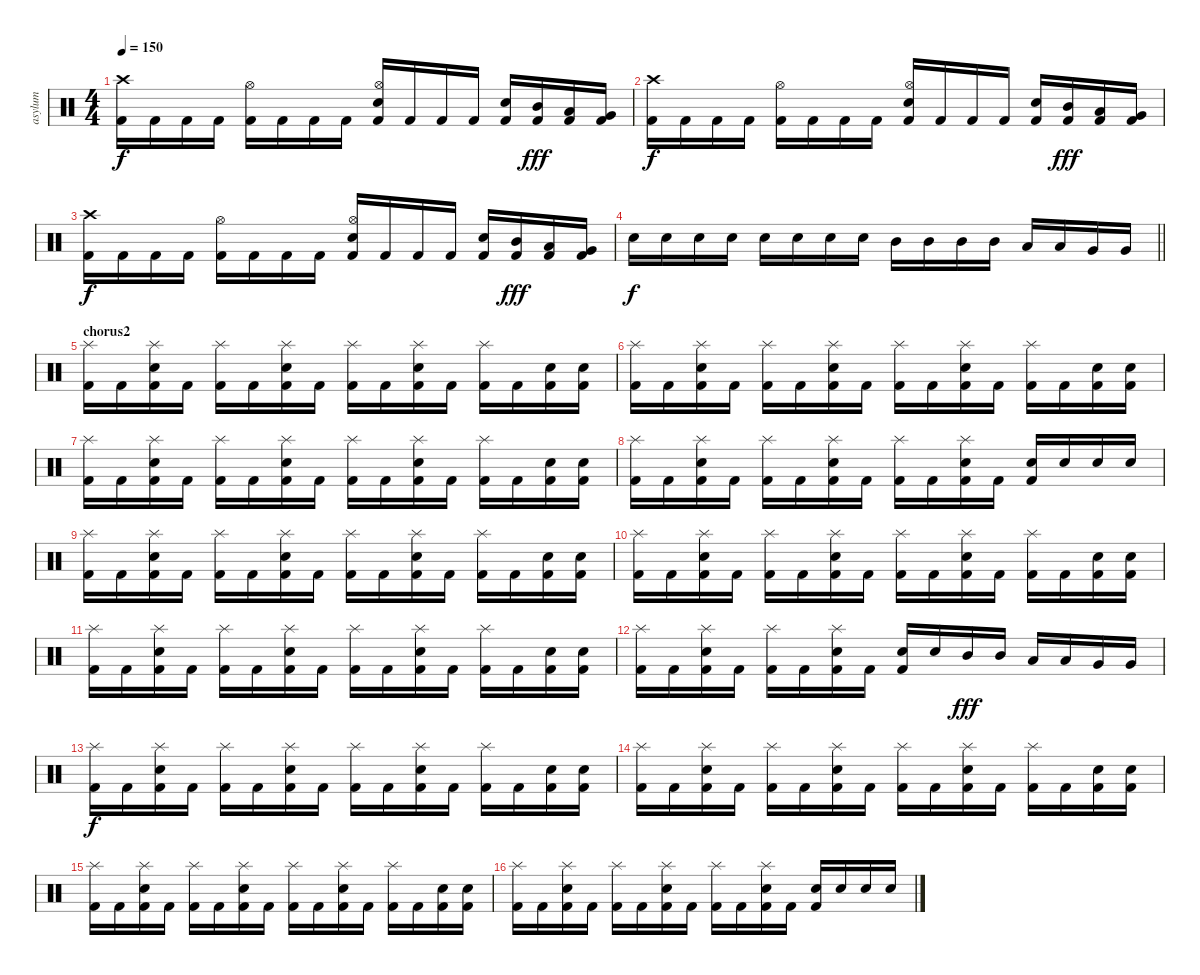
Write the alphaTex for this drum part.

\track ("asylum" "asylum") {instrument percussion}
\staff {score}
\articulation defaults
\ts (4 4)
\tempo 150
\clef neutral
\ks c
("Crash high (hit)" "Kick (hit) 2").16{dy f} "Kick (hit) 2".16 "Kick (hit) 2".16 "Kick (hit) 2".16 ("Hi-Hat (open)" "Kick (hit) 2").16 "Kick (hit) 2".16 "Kick (hit) 2".16 "Kick (hit) 2".16 ("Hi-Hat (open)" "Electric Snare (hit)" "Kick (hit) 2").16 "Kick (hit) 2".16 "Kick (hit) 2".16 "Kick (hit) 2".16 ("Electric Snare (hit)" "Kick (hit) 2").16 ("Mid Tom (hit)" "Kick (hit) 2").16{dy fff} ("Low Tom (hit)" "Kick (hit) 2").16 ("Very Low Tom (hit)" "Kick (hit) 2").16 |
("Crash high (hit)" "Kick (hit) 2").16{dy f} "Kick (hit) 2".16 "Kick (hit) 2".16 "Kick (hit) 2".16 ("Hi-Hat (open)" "Kick (hit) 2").16 "Kick (hit) 2".16 "Kick (hit) 2".16 "Kick (hit) 2".16 ("Hi-Hat (open)" "Electric Snare (hit)" "Kick (hit) 2").16 "Kick (hit) 2".16 "Kick (hit) 2".16 "Kick (hit) 2".16 ("Electric Snare (hit)" "Kick (hit) 2").16 ("Mid Tom (hit)" "Kick (hit) 2").16{dy fff} ("Low Tom (hit)" "Kick (hit) 2").16 ("Very Low Tom (hit)" "Kick (hit) 2").16 |
("Crash high (hit)" "Kick (hit) 2").16{dy f} "Kick (hit) 2".16 "Kick (hit) 2".16 "Kick (hit) 2".16 ("Hi-Hat (open)" "Kick (hit) 2").16 "Kick (hit) 2".16 "Kick (hit) 2".16 "Kick (hit) 2".16 ("Hi-Hat (open)" "Electric Snare (hit)" "Kick (hit) 2").16 "Kick (hit) 2".16 "Kick (hit) 2".16 "Kick (hit) 2".16 ("Electric Snare (hit)" "Kick (hit) 2").16 ("Mid Tom (hit)" "Kick (hit) 2").16{dy fff} ("Low Tom (hit)" "Kick (hit) 2").16 ("Very Low Tom (hit)" "Kick (hit) 2").16 |
\barLineRight lightlight "Electric Snare (hit)".16{dy f} "Electric Snare (hit)".16 "Electric Snare (hit)".16 "Electric Snare (hit)".16 "Electric Snare (hit)".16 "Electric Snare (hit)".16 "Electric Snare (hit)".16 "Electric Snare (hit)".16 "Mid Tom (hit)".16 "Mid Tom (hit)".16 "Mid Tom (hit)".16 "Mid Tom (hit)".16 "Low Tom (hit)".16 "Low Tom (hit)".16 "Very Low Tom (hit)".16 "Very Low Tom (hit)".16
|
\section ("" "chorus2")
("Splash (hit)" "Kick (hit) 2").16 "Kick (hit) 2".16 ("Splash (hit)" "Electric Snare (hit)" "Kick (hit) 2").16 "Kick (hit) 2".16 ("Splash (hit)" "Kick (hit) 2").16 "Kick (hit) 2".16 ("Splash (hit)" "Electric Snare (hit)" "Kick (hit) 2").16 "Kick (hit) 2".16 ("Splash (hit)" "Kick (hit) 2").16 "Kick (hit) 2".16 ("Splash (hit)" "Electric Snare (hit)" "Kick (hit) 2").16 "Kick (hit) 2".16 ("Splash (hit)" "Kick (hit) 2").16 "Kick (hit) 2".16 ("Electric Snare (hit)" "Kick (hit) 2").16 ("Electric Snare (hit)" "Kick (hit) 2").16 |
("Splash (hit)" "Kick (hit) 2").16 "Kick (hit) 2".16 ("Splash (hit)" "Electric Snare (hit)" "Kick (hit) 2").16 "Kick (hit) 2".16 ("Splash (hit)" "Kick (hit) 2").16 "Kick (hit) 2".16 ("Splash (hit)" "Electric Snare (hit)" "Kick (hit) 2").16 "Kick (hit) 2".16 ("Splash (hit)" "Kick (hit) 2").16 "Kick (hit) 2".16 ("Splash (hit)" "Electric Snare (hit)" "Kick (hit) 2").16 "Kick (hit) 2".16 ("Splash (hit)" "Kick (hit) 2").16 "Kick (hit) 2".16 ("Electric Snare (hit)" "Kick (hit) 2").16 ("Electric Snare (hit)" "Kick (hit) 2").16 |
("Splash (hit)" "Kick (hit) 2").16 "Kick (hit) 2".16 ("Splash (hit)" "Electric Snare (hit)" "Kick (hit) 2").16 "Kick (hit) 2".16 ("Splash (hit)" "Kick (hit) 2").16 "Kick (hit) 2".16 ("Splash (hit)" "Electric Snare (hit)" "Kick (hit) 2").16 "Kick (hit) 2".16 ("Splash (hit)" "Kick (hit) 2").16 "Kick (hit) 2".16 ("Splash (hit)" "Electric Snare (hit)" "Kick (hit) 2").16 "Kick (hit) 2".16 ("Splash (hit)" "Kick (hit) 2").16 "Kick (hit) 2".16 ("Electric Snare (hit)" "Kick (hit) 2").16 ("Electric Snare (hit)" "Kick (hit) 2").16 |
("Splash (hit)" "Kick (hit) 2").16 "Kick (hit) 2".16 ("Splash (hit)" "Electric Snare (hit)" "Kick (hit) 2").16 "Kick (hit) 2".16 ("Splash (hit)" "Kick (hit) 2").16 "Kick (hit) 2".16 ("Splash (hit)" "Electric Snare (hit)" "Kick (hit) 2").16 "Kick (hit) 2".16 ("Splash (hit)" "Kick (hit) 2").16 "Kick (hit) 2".16 ("Splash (hit)" "Electric Snare (hit)" "Kick (hit) 2").16 "Kick (hit) 2".16 ("Electric Snare (hit)" "Kick (hit) 2").16 "Electric Snare (hit)".16 "Electric Snare (hit)".16 "Electric Snare (hit)".16 |
("Splash (hit)" "Kick (hit) 2").16 "Kick (hit) 2".16 ("Splash (hit)" "Electric Snare (hit)" "Kick (hit) 2").16 "Kick (hit) 2".16 ("Splash (hit)" "Kick (hit) 2").16 "Kick (hit) 2".16 ("Splash (hit)" "Electric Snare (hit)" "Kick (hit) 2").16 "Kick (hit) 2".16 ("Splash (hit)" "Kick (hit) 2").16 "Kick (hit) 2".16 ("Splash (hit)" "Electric Snare (hit)" "Kick (hit) 2").16 "Kick (hit) 2".16 ("Splash (hit)" "Kick (hit) 2").16 "Kick (hit) 2".16 ("Electric Snare (hit)" "Kick (hit) 2").16 ("Electric Snare (hit)" "Kick (hit) 2").16 |
("Splash (hit)" "Kick (hit) 2").16 "Kick (hit) 2".16 ("Splash (hit)" "Electric Snare (hit)" "Kick (hit) 2").16 "Kick (hit) 2".16 ("Splash (hit)" "Kick (hit) 2").16 "Kick (hit) 2".16 ("Splash (hit)" "Electric Snare (hit)" "Kick (hit) 2").16 "Kick (hit) 2".16 ("Splash (hit)" "Kick (hit) 2").16 "Kick (hit) 2".16 ("Splash (hit)" "Electric Snare (hit)" "Kick (hit) 2").16 "Kick (hit) 2".16 ("Splash (hit)" "Kick (hit) 2").16 "Kick (hit) 2".16 ("Electric Snare (hit)" "Kick (hit) 2").16 ("Electric Snare (hit)" "Kick (hit) 2").16 |
("Splash (hit)" "Kick (hit) 2").16 "Kick (hit) 2".16 ("Splash (hit)" "Electric Snare (hit)" "Kick (hit) 2").16 "Kick (hit) 2".16 ("Splash (hit)" "Kick (hit) 2").16 "Kick (hit) 2".16 ("Splash (hit)" "Electric Snare (hit)" "Kick (hit) 2").16 "Kick (hit) 2".16 ("Splash (hit)" "Kick (hit) 2").16 "Kick (hit) 2".16 ("Splash (hit)" "Electric Snare (hit)" "Kick (hit) 2").16 "Kick (hit) 2".16 ("Splash (hit)" "Kick (hit) 2").16 "Kick (hit) 2".16 ("Electric Snare (hit)" "Kick (hit) 2").16 ("Electric Snare (hit)" "Kick (hit) 2").16 |
("Splash (hit)" "Kick (hit) 2").16 "Kick (hit) 2".16 ("Splash (hit)" "Electric Snare (hit)" "Kick (hit) 2").16 "Kick (hit) 2".16 ("Splash (hit)" "Kick (hit) 2").16 "Kick (hit) 2".16 ("Splash (hit)" "Electric Snare (hit)" "Kick (hit) 2").16 "Kick (hit) 2".16 ("Electric Snare (hit)" "Kick (hit) 2").16 "Electric Snare (hit)".16 "Mid Tom (hit)".16{dy fff} "Mid Tom (hit)".16 "Low Tom (hit)".16 "Low Tom (hit)".16 "Very Low Tom (hit)".16 "Very Low Tom (hit)".16 |
("Splash (hit)" "Kick (hit) 2").16{dy f} "Kick (hit) 2".16 ("Splash (hit)" "Electric Snare (hit)" "Kick (hit) 2").16 "Kick (hit) 2".16 ("Splash (hit)" "Kick (hit) 2").16 "Kick (hit) 2".16 ("Splash (hit)" "Electric Snare (hit)" "Kick (hit) 2").16 "Kick (hit) 2".16 ("Splash (hit)" "Kick (hit) 2").16 "Kick (hit) 2".16 ("Splash (hit)" "Electric Snare (hit)" "Kick (hit) 2").16 "Kick (hit) 2".16 ("Splash (hit)" "Kick (hit) 2").16 "Kick (hit) 2".16 ("Electric Snare (hit)" "Kick (hit) 2").16 ("Electric Snare (hit)" "Kick (hit) 2").16 |
("Splash (hit)" "Kick (hit) 2").16 "Kick (hit) 2".16 ("Splash (hit)" "Electric Snare (hit)" "Kick (hit) 2").16 "Kick (hit) 2".16 ("Splash (hit)" "Kick (hit) 2").16 "Kick (hit) 2".16 ("Splash (hit)" "Electric Snare (hit)" "Kick (hit) 2").16 "Kick (hit) 2".16 ("Splash (hit)" "Kick (hit) 2").16 "Kick (hit) 2".16 ("Splash (hit)" "Electric Snare (hit)" "Kick (hit) 2").16 "Kick (hit) 2".16 ("Splash (hit)" "Kick (hit) 2").16 "Kick (hit) 2".16 ("Electric Snare (hit)" "Kick (hit) 2").16 ("Electric Snare (hit)" "Kick (hit) 2").16 |
("Splash (hit)" "Kick (hit) 2").16 "Kick (hit) 2".16 ("Splash (hit)" "Electric Snare (hit)" "Kick (hit) 2").16 "Kick (hit) 2".16 ("Splash (hit)" "Kick (hit) 2").16 "Kick (hit) 2".16 ("Splash (hit)" "Electric Snare (hit)" "Kick (hit) 2").16 "Kick (hit) 2".16 ("Splash (hit)" "Kick (hit) 2").16 "Kick (hit) 2".16 ("Splash (hit)" "Electric Snare (hit)" "Kick (hit) 2").16 "Kick (hit) 2".16 ("Splash (hit)" "Kick (hit) 2").16 "Kick (hit) 2".16 ("Electric Snare (hit)" "Kick (hit) 2").16 ("Electric Snare (hit)" "Kick (hit) 2").16 |
("Splash (hit)" "Kick (hit) 2").16 "Kick (hit) 2".16 ("Splash (hit)" "Electric Snare (hit)" "Kick (hit) 2").16 "Kick (hit) 2".16 ("Splash (hit)" "Kick (hit) 2").16 "Kick (hit) 2".16 ("Splash (hit)" "Electric Snare (hit)" "Kick (hit) 2").16 "Kick (hit) 2".16 ("Splash (hit)" "Kick (hit) 2").16 "Kick (hit) 2".16 ("Splash (hit)" "Electric Snare (hit)" "Kick (hit) 2").16 "Kick (hit) 2".16 ("Electric Snare (hit)" "Kick (hit) 2").16 "Electric Snare (hit)".16 "Electric Snare (hit)".16 "Electric Snare (hit)".16
